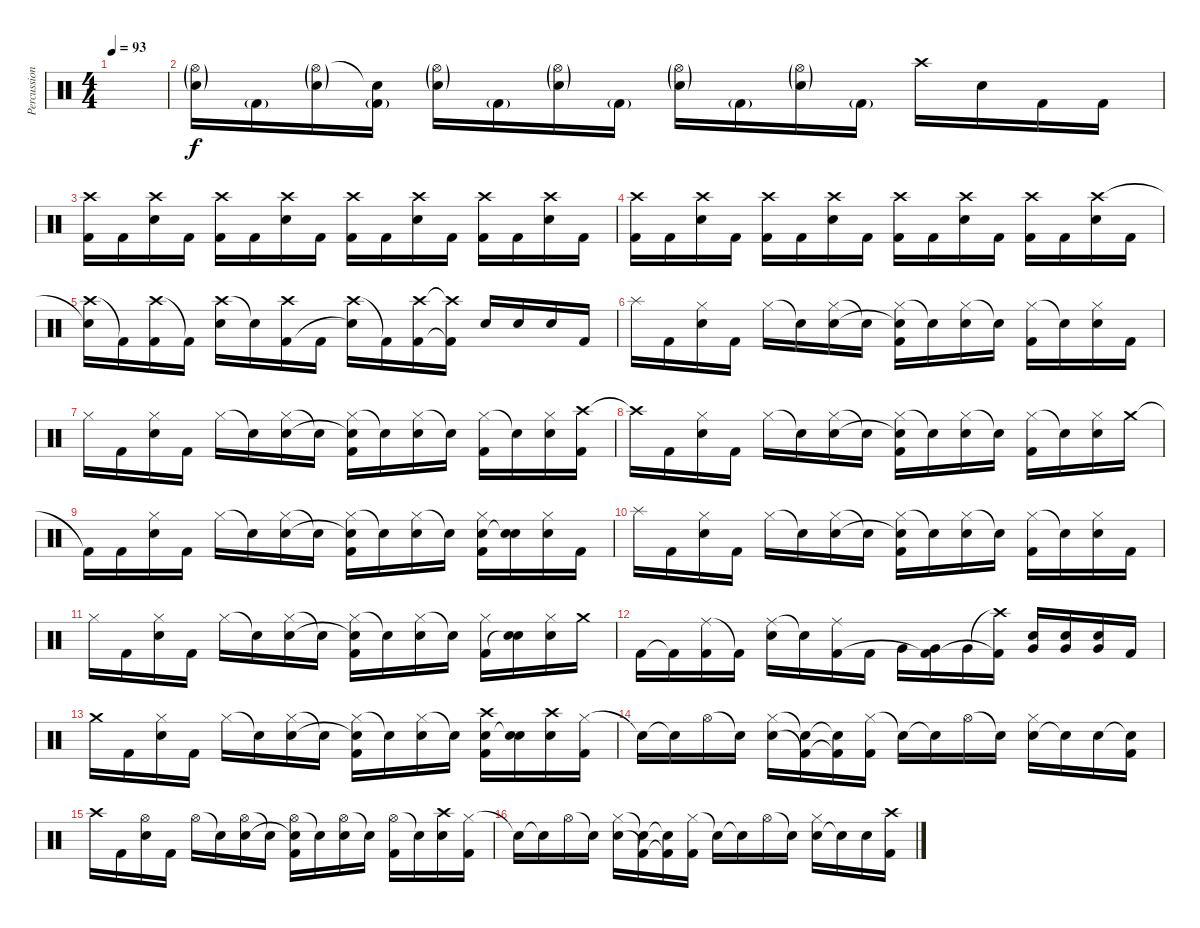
\track ("Percussion" "Percussion") {instrument percussion}
\staff {score}
\articulation defaults
\ts (4 4)
\tempo 93
\clef neutral
\ks c
|
("Hi-Hat (open)"{g} "Electric Snare (hit)"{g}).16 "Kick (hit) 2"{g}.16 ("Hi-Hat (open)"{g} "Electric Snare (hit)"{g}).16 ("Electric Snare (hit)"{t} "Kick (hit) 2"{g}).16 ("Hi-Hat (open)"{g} "Electric Snare (hit)"{g}).16 "Kick (hit) 2"{g}.16 ("Electric Snare (hit)"{g} "Hi-Hat (open)"{g}).16 "Kick (hit) 2"{g}.16 ("Electric Snare (hit)"{g} "Hi-Hat (open)"{g}).16 "Kick (hit) 2"{g}.16 ("Electric Snare (hit)"{g} "Hi-Hat (open)"{g}).16 "Kick (hit) 2"{g}.16 "Crash high (hit)".16{dy f} "Snare (hit)"{x}.16 "Kick (hit) 2"{x}.16 "Kick (hit) 2"{x}.16 |
("Crash high (hit)" "Kick (hit) 2").16 "Kick (hit) 2".16 ("Electric Snare (hit)" "Crash high (hit)").16 "Kick (hit) 2".16 ("Crash high (hit)" "Kick (hit) 2").16 "Kick (hit) 2".16 ("Electric Snare (hit)" "Crash high (hit)").16 "Kick (hit) 2".16 ("Crash high (hit)" "Kick (hit) 2").16 "Kick (hit) 2".16 ("Electric Snare (hit)" "Crash high (hit)").16 "Kick (hit) 2".16 ("Crash high (hit)" "Kick (hit) 2").16 "Kick (hit) 2".16 ("Electric Snare (hit)" "Crash high (hit)").16 "Kick (hit) 2".16 |
("Crash high (hit)" "Kick (hit) 2").16 "Kick (hit) 2".16 ("Electric Snare (hit)" "Crash high (hit)").16 "Kick (hit) 2".16 ("Crash high (hit)" "Kick (hit) 2").16 "Kick (hit) 2".16 ("Electric Snare (hit)" "Crash high (hit)").16 "Kick (hit) 2".16 ("Crash high (hit)" "Kick (hit) 2").16 "Kick (hit) 2".16 ("Electric Snare (hit)" "Crash high (hit)").16 "Kick (hit) 2".16 ("Crash high (hit)" "Kick (hit) 2").16 "Kick (hit) 2".16 ("Electric Snare (hit)" "Crash high (hit)").16 "Kick (hit) 2".16 |
("Crash high (hit)" "Snare (hit)"{t}).16 "Kick (hit) 2"{t}.16 ("Crash high (hit)" "Kick (hit) 2").16 "Kick (hit) 2"{t}.16 ("Crash high (hit)" "Electric Snare (hit)").16 "Snare (hit)"{t}.16 ("Crash high (hit)" "Kick (hit) 2").16 "Kick (hit) 2".16 ("Crash high (hit)" "Snare (hit)"{t}).16 "Kick (hit) 2"{t}.16 ("Crash high (hit)" "Kick (hit) 2").16 ("Crash high (hit)"{t} "Kick (hit) 2"{t}).16 "Electric Snare (hit)".16 "Electric Snare (hit)".16 "Electric Snare (hit)".16 "Kick (hit) 2".16 |
"Splash (hit)".16 "Kick (hit) 2".16 ("Hi-Hat (closed)" "Electric Snare (hit)").16 "Kick (hit) 2".16 "Hi-Hat (closed)".16 "Snare (hit)"{t}.16 ("Hi-Hat (closed)" "Electric Snare (hit)").16 "Snare (hit)"{t}.16 ("Hi-Hat (closed)" "Snare (hit)"{t} "Kick (hit) 2").16 "Snare (hit)"{t}.16 ("Hi-Hat (closed)" "Electric Snare (hit)").16 "Snare (hit)"{t}.16 ("Hi-Hat (closed)" "Kick (hit) 2").16 "Snare (hit)"{t}.16 ("Hi-Hat (closed)" "Electric Snare (hit)").16 "Kick (hit) 2".16 |
"Hi-Hat (closed)".16 "Kick (hit) 2".16 ("Hi-Hat (closed)" "Electric Snare (hit)").16 "Kick (hit) 2".16 "Hi-Hat (closed)".16 "Snare (hit)"{t}.16 ("Hi-Hat (closed)" "Electric Snare (hit)").16 "Snare (hit)"{t}.16 ("Hi-Hat (closed)" "Snare (hit)"{t} "Kick (hit) 2").16 "Snare (hit)"{t}.16 ("Hi-Hat (closed)" "Electric Snare (hit)").16 "Snare (hit)"{t}.16 ("Hi-Hat (closed)" "Kick (hit) 2").16 "Snare (hit)"{t}.16 ("Hi-Hat (closed)" "Electric Snare (hit)").16 ("Crash high (hit)" "Kick (hit) 2").16 |
"Crash high (hit)"{t}.16 "Kick (hit) 2".16 ("Hi-Hat (closed)" "Electric Snare (hit)").16 "Kick (hit) 2".16 "Hi-Hat (closed)".16 "Snare (hit)"{t}.16 ("Hi-Hat (closed)" "Electric Snare (hit)").16 "Snare (hit)"{t}.16 ("Hi-Hat (closed)" "Snare (hit)"{t} "Kick (hit) 2").16 "Snare (hit)"{t}.16 ("Hi-Hat (closed)" "Electric Snare (hit)").16 "Snare (hit)"{t}.16 ("Hi-Hat (closed)" "Kick (hit) 2").16 "Snare (hit)"{t}.16 ("Hi-Hat (closed)" "Electric Snare (hit)").16 "Crash medium (hit)".16 |
"Kick (hit) 2"{t}.16 "Kick (hit) 2".16 ("Hi-Hat (closed)" "Electric Snare (hit)").16 "Kick (hit) 2".16 "Hi-Hat (closed)".16 "Snare (hit)"{t}.16 ("Hi-Hat (closed)" "Electric Snare (hit)").16 "Snare (hit)"{t}.16 ("Hi-Hat (closed)" "Snare (hit)"{t} "Kick (hit) 2").16 "Snare (hit)"{t}.16 ("Hi-Hat (closed)" "Electric Snare (hit)").16 "Snare (hit)"{t}.16 ("Hi-Hat (closed)" "Electric Snare (hit)" "Kick (hit) 2").16 ("Electric Snare (hit)" "Snare (hit)"{t}).16 ("Hi-Hat (closed)" "Electric Snare (hit)").16 "Kick (hit) 2".16 |
"Splash (hit)".16 "Kick (hit) 2".16 ("Hi-Hat (closed)" "Electric Snare (hit)").16 "Kick (hit) 2".16 "Hi-Hat (closed)".16 "Snare (hit)"{t}.16 ("Hi-Hat (closed)" "Electric Snare (hit)").16 "Snare (hit)"{t}.16 ("Hi-Hat (closed)" "Snare (hit)"{t} "Kick (hit) 2").16 "Snare (hit)"{t}.16 ("Hi-Hat (closed)" "Electric Snare (hit)").16 "Snare (hit)"{t}.16 ("Hi-Hat (closed)" "Kick (hit) 2").16 "Snare (hit)"{t}.16 ("Hi-Hat (closed)" "Electric Snare (hit)").16 "Kick (hit) 2".16 |
"Hi-Hat (closed)".16 "Kick (hit) 2".16 ("Hi-Hat (closed)" "Electric Snare (hit)").16 "Kick (hit) 2".16 "Hi-Hat (closed)".16 "Snare (hit)"{t}.16 ("Hi-Hat (closed)" "Electric Snare (hit)").16 "Snare (hit)"{t}.16 ("Hi-Hat (closed)" "Snare (hit)"{t} "Kick (hit) 2").16 "Snare (hit)"{t}.16 ("Hi-Hat (closed)" "Electric Snare (hit)").16 "Snare (hit)"{t}.16 ("Hi-Hat (closed)" "Kick (hit) 2").16 ("Electric Snare (hit)" "Snare (hit)"{t}).16 ("Hi-Hat (closed)" "Electric Snare (hit)").16 "Crash medium (hit)".16 |
"Kick (hit) 2".16 "Kick (hit) 2"{t}.16 ("Ride (middle)" "Kick (hit) 2").16 "Kick (hit) 2"{t}.16 ("Ride (middle)" "Electric Snare (hit)").16 "Snare (hit)"{t}.16 ("Ride (middle)" "Kick (hit) 2").16 "Kick (hit) 2".16 "Very Low Tom (hit)".16 ("Very Low Tom (hit)" "Kick (hit) 2"{t}).16 "Very Low Tom (hit)".16 ("Crash high (hit)"{t} "Kick (hit) 2"{t}).16 ("Very Low Tom (hit)" "Electric Snare (hit)").16 ("Very Low Tom (hit)" "Electric Snare (hit)").16 ("Very Low Tom (hit)" "Electric Snare (hit)").16 "Kick (hit) 2".16 |
"Crash medium (hit)".16 "Kick (hit) 2".16 ("Hi-Hat (closed)" "Electric Snare (hit)").16 "Kick (hit) 2".16 "Hi-Hat (closed)".16 "Snare (hit)"{t}.16 ("Hi-Hat (closed)" "Electric Snare (hit)").16 "Snare (hit)"{t}.16 ("Hi-Hat (closed)" "Snare (hit)"{t} "Kick (hit) 2").16 "Snare (hit)"{t}.16 ("Hi-Hat (closed)" "Electric Snare (hit)").16 "Snare (hit)"{t}.16 ("Crash high (hit)" "Electric Snare (hit)" "Kick (hit) 2").16 ("Electric Snare (hit)" "Snare (hit)"{t}).16 ("Crash high (hit)" "Electric Snare (hit)").16 ("Hi-Hat (closed)" "Kick (hit) 2").16 |
"Snare (hit)"{t}.16 "Snare (hit)"{t}.16 "Hi-Hat (open)".16 "Snare (hit)"{t}.16 ("Hi-Hat (closed)" "Electric Snare (hit)").16 ("Snare (hit)"{t} "Kick (hit) 2"{t}).16 ("Snare (hit)"{t} "Kick (hit) 2"{t}).16 ("Hi-Hat (closed)" "Kick (hit) 2").16 "Snare (hit)"{t}.16 "Snare (hit)"{t}.16 "Hi-Hat (open)".16 "Snare (hit)"{t}.16 ("Electric Snare (hit)" "Hi-Hat (closed)").16 "Electric Snare (hit)"{t}.16 "Electric Snare (hit)".16 ("Snare (hit)"{t} "Kick (hit) 2").16 |
"Crash high (hit)".16 "Kick (hit) 2".16 ("Hi-Hat (open)" "Electric Snare (hit)").16 "Kick (hit) 2".16 "Hi-Hat (open)".16 "Snare (hit)"{t}.16 ("Hi-Hat (open)" "Electric Snare (hit)").16 "Snare (hit)"{t}.16 ("Hi-Hat (open)" "Snare (hit)"{t} "Kick (hit) 2").16 "Snare (hit)"{t}.16 ("Hi-Hat (open)" "Electric Snare (hit)").16 "Snare (hit)"{t}.16 ("Hi-Hat (open)" "Kick (hit) 2").16 "Snare (hit)"{t}.16 ("Crash high (hit)" "Electric Snare (hit)").16 ("Hi-Hat (closed)" "Kick (hit) 2").16 |
"Snare (hit)"{t}.16 "Snare (hit)"{t}.16 "Hi-Hat (open)".16 "Snare (hit)"{t}.16 ("Hi-Hat (closed)" "Electric Snare (hit)").16 ("Snare (hit)"{t} "Kick (hit) 2"{t}).16 ("Snare (hit)"{t} "Kick (hit) 2"{t}).16 ("Hi-Hat (closed)" "Kick (hit) 2").16 "Snare (hit)"{t}.16 "Snare (hit)"{t}.16 "Hi-Hat (open)".16 "Snare (hit)"{t}.16 ("Electric Snare (hit)" "Hi-Hat (closed)").16 "Electric Snare (hit)"{t}.16 "Electric Snare (hit)".16 ("Crash high (hit)" "Kick (hit) 2").16
